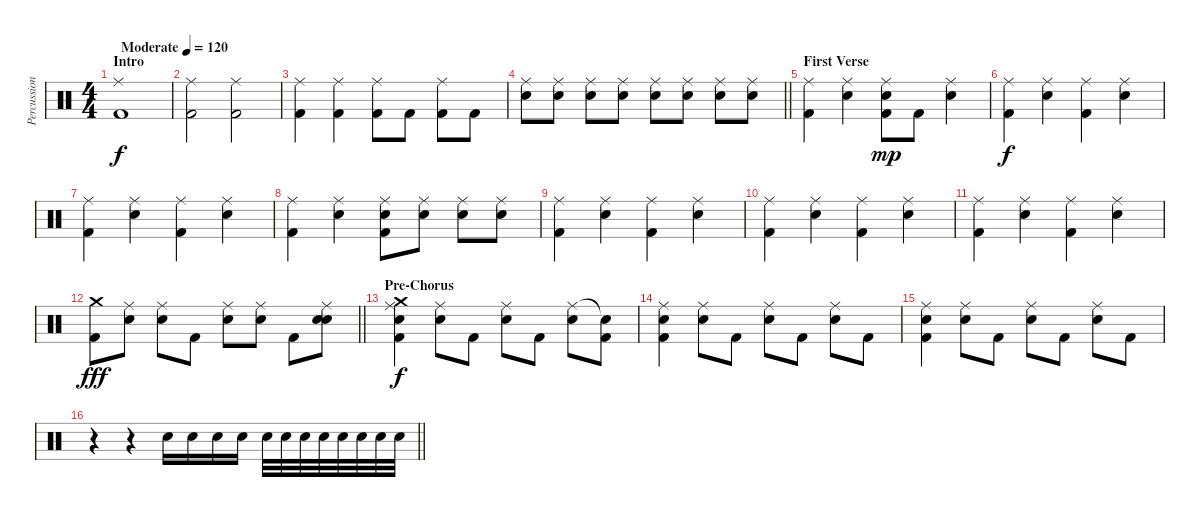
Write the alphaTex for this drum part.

\track ("Percussion" "Percussion") {instrument percussion}
\staff {score}
\articulation defaults
\ts (4 4)
\section ("" "Intro")
\tempo (120 "Moderate")
\clef neutral
\ks c
("Ride (middle)" "Kick (hit) 2").1{dy f} |
("Ride (middle)" "Kick (hit) 2").2 ("Ride (middle)" "Kick (hit) 2").2 |
("Ride (middle)" "Kick (hit) 2").4 ("Ride (middle)" "Kick (hit) 2").4 ("Ride (middle)" "Kick (hit) 2").8 "Kick (hit) 2".8 ("Ride (middle)" "Kick (hit) 2").8 "Kick (hit) 2".8 |
\barLineRight lightlight
("Ride (middle)" "Snare (hit) 2").8 ("Ride (middle)" "Snare (hit) 2").8 ("Ride (middle)" "Snare (hit) 2").8 ("Ride (middle)" "Snare (hit) 2").8 ("Ride (middle)" "Snare (hit) 2").8 ("Ride (middle)" "Snare (hit) 2").8 ("Ride (middle)" "Snare (hit) 2").8 ("Ride (middle)" "Snare (hit) 2").8 |
\section ("" "First Verse")
("Ride (middle)" "Kick (hit) 2").4 ("Ride (middle)" "Snare (hit) 2").4 ("Ride (middle)" "Snare (hit) 2" "Kick (hit) 2").8{dy mp} "Kick (hit) 2".8 ("Ride (middle)" "Snare (hit) 2").4 |
("Ride (middle)" "Kick (hit) 2").4{dy f} ("Ride (middle)" "Snare (hit) 2").4 ("Ride (middle)" "Kick (hit) 2").4 ("Ride (middle)" "Snare (hit) 2").4 |
("Ride (middle)" "Kick (hit) 2").4 ("Ride (middle)" "Snare (hit) 2").4 ("Ride (middle)" "Kick (hit) 2").4 ("Ride (middle)" "Snare (hit) 2").4 |
("Ride (middle)" "Kick (hit) 2").4 ("Ride (middle)" "Snare (hit) 2").4 ("Ride (middle)" "Snare (hit) 2" "Kick (hit) 2").8 ("Ride (middle)" "Snare (hit) 2").8 ("Ride (middle)" "Snare (hit) 2").8 ("Ride (middle)" "Snare (hit) 2").8 |
("Ride (middle)" "Kick (hit) 2").4 ("Ride (middle)" "Snare (hit) 2").4 ("Ride (middle)" "Kick (hit) 2").4 ("Ride (middle)" "Snare (hit) 2").4 |
("Ride (middle)" "Kick (hit) 2").4 ("Ride (middle)" "Snare (hit) 2").4 ("Ride (middle)" "Kick (hit) 2").4 ("Ride (middle)" "Snare (hit) 2").4 |
("Ride (middle)" "Kick (hit) 2").4 ("Ride (middle)" "Snare (hit) 2").4 ("Ride (middle)" "Kick (hit) 2").4 ("Ride (middle)" "Snare (hit) 2").4 |
\barLineRight lightlight
("Crash medium (hit)" "Kick (hit) 2").8{dy fff} ("Ride (middle)" "Snare (hit) 2").8 ("Ride (middle)" "Snare (hit) 2").8 "Kick (hit) 2".8 ("Ride (middle)" "Snare (hit) 2").8 ("Ride (middle)" "Snare (hit) 2").8 "Kick (hit) 2".8 ("Ride (middle)" "Snare (hit) 2" "Snare (hit)").8 |
\section ("" "Pre-Chorus")
("Ride (middle)" "Snare (hit) 2" "Crash medium (hit)" "Kick (hit) 2").4{dy f} ("Ride (middle)" "Snare (hit) 2").8 "Kick (hit) 2".8 ("Ride (middle)" "Snare (hit) 2").8 "Kick (hit) 2".8 ("Ride (middle)" "Snare (hit) 2").8 ("Snare (hit)"{t} "Kick (hit) 2").8 |
("Ride (middle)" "Snare (hit) 2" "Kick (hit) 2").4 ("Ride (middle)" "Snare (hit) 2").8 "Kick (hit) 2".8 ("Ride (middle)" "Snare (hit) 2").8 "Kick (hit) 2".8 ("Ride (middle)" "Snare (hit) 2").8 "Kick (hit) 2".8 |
("Ride (middle)" "Snare (hit) 2" "Kick (hit) 2").4 ("Ride (middle)" "Snare (hit) 2").8 "Kick (hit) 2".8 ("Ride (middle)" "Snare (hit) 2").8 "Kick (hit) 2".8 ("Ride (middle)" "Snare (hit) 2").8 "Kick (hit) 2".8 |
\barLineRight lightlight
r.4 r.4 "Snare (hit) 2".16 "Snare (hit) 2".16 "Snare (hit) 2".16 "Snare (hit) 2".16 "Snare (hit) 2".32 "Snare (hit) 2".32 "Snare (hit) 2".32 "Snare (hit) 2".32 "Snare (hit) 2".32 "Snare (hit) 2".32 "Snare (hit) 2".32 "Snare (hit) 2".32
